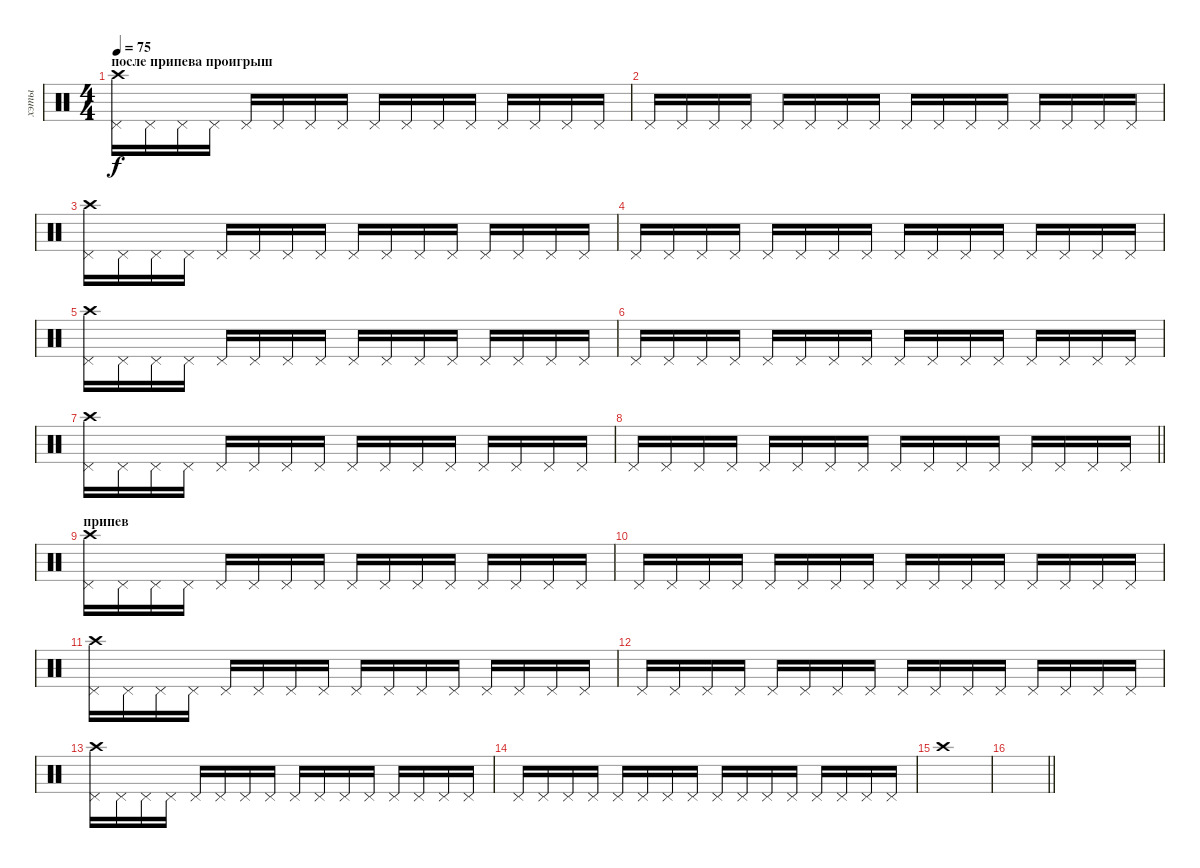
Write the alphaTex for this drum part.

\track ("хэты" "хэты") {instrument percussion}
\staff {score}
\articulation defaults
\ts (4 4)
\section ("" "после припева проигрыш")
\tempo 75
\clef neutral
\ks c
("Crash high (hit)" "Pedal Hi-Hat (hit)").16{dy f} "Pedal Hi-Hat (hit)".16 "Pedal Hi-Hat (hit)".16 "Pedal Hi-Hat (hit)".16 "Pedal Hi-Hat (hit)".16 "Pedal Hi-Hat (hit)".16 "Pedal Hi-Hat (hit)".16 "Pedal Hi-Hat (hit)".16 "Pedal Hi-Hat (hit)".16 "Pedal Hi-Hat (hit)".16 "Pedal Hi-Hat (hit)".16 "Pedal Hi-Hat (hit)".16 "Pedal Hi-Hat (hit)".16 "Pedal Hi-Hat (hit)".16 "Pedal Hi-Hat (hit)".16 "Pedal Hi-Hat (hit)".16 |
"Pedal Hi-Hat (hit)".16 "Pedal Hi-Hat (hit)".16 "Pedal Hi-Hat (hit)".16 "Pedal Hi-Hat (hit)".16 "Pedal Hi-Hat (hit)".16 "Pedal Hi-Hat (hit)".16 "Pedal Hi-Hat (hit)".16 "Pedal Hi-Hat (hit)".16 "Pedal Hi-Hat (hit)".16 "Pedal Hi-Hat (hit)".16 "Pedal Hi-Hat (hit)".16 "Pedal Hi-Hat (hit)".16 "Pedal Hi-Hat (hit)".16 "Pedal Hi-Hat (hit)".16 "Pedal Hi-Hat (hit)".16 "Pedal Hi-Hat (hit)".16 |
("Crash high (hit)" "Pedal Hi-Hat (hit)").16 "Pedal Hi-Hat (hit)".16 "Pedal Hi-Hat (hit)".16 "Pedal Hi-Hat (hit)".16 "Pedal Hi-Hat (hit)".16 "Pedal Hi-Hat (hit)".16 "Pedal Hi-Hat (hit)".16 "Pedal Hi-Hat (hit)".16 "Pedal Hi-Hat (hit)".16 "Pedal Hi-Hat (hit)".16 "Pedal Hi-Hat (hit)".16 "Pedal Hi-Hat (hit)".16 "Pedal Hi-Hat (hit)".16 "Pedal Hi-Hat (hit)".16 "Pedal Hi-Hat (hit)".16 "Pedal Hi-Hat (hit)".16 |
"Pedal Hi-Hat (hit)".16 "Pedal Hi-Hat (hit)".16 "Pedal Hi-Hat (hit)".16 "Pedal Hi-Hat (hit)".16 "Pedal Hi-Hat (hit)".16 "Pedal Hi-Hat (hit)".16 "Pedal Hi-Hat (hit)".16 "Pedal Hi-Hat (hit)".16 "Pedal Hi-Hat (hit)".16 "Pedal Hi-Hat (hit)".16 "Pedal Hi-Hat (hit)".16 "Pedal Hi-Hat (hit)".16 "Pedal Hi-Hat (hit)".16 "Pedal Hi-Hat (hit)".16 "Pedal Hi-Hat (hit)".16 "Pedal Hi-Hat (hit)".16 |
("Crash high (hit)" "Pedal Hi-Hat (hit)").16 "Pedal Hi-Hat (hit)".16 "Pedal Hi-Hat (hit)".16 "Pedal Hi-Hat (hit)".16 "Pedal Hi-Hat (hit)".16 "Pedal Hi-Hat (hit)".16 "Pedal Hi-Hat (hit)".16 "Pedal Hi-Hat (hit)".16 "Pedal Hi-Hat (hit)".16 "Pedal Hi-Hat (hit)".16 "Pedal Hi-Hat (hit)".16 "Pedal Hi-Hat (hit)".16 "Pedal Hi-Hat (hit)".16 "Pedal Hi-Hat (hit)".16 "Pedal Hi-Hat (hit)".16 "Pedal Hi-Hat (hit)".16 |
"Pedal Hi-Hat (hit)".16 "Pedal Hi-Hat (hit)".16 "Pedal Hi-Hat (hit)".16 "Pedal Hi-Hat (hit)".16 "Pedal Hi-Hat (hit)".16 "Pedal Hi-Hat (hit)".16 "Pedal Hi-Hat (hit)".16 "Pedal Hi-Hat (hit)".16 "Pedal Hi-Hat (hit)".16 "Pedal Hi-Hat (hit)".16 "Pedal Hi-Hat (hit)".16 "Pedal Hi-Hat (hit)".16 "Pedal Hi-Hat (hit)".16 "Pedal Hi-Hat (hit)".16 "Pedal Hi-Hat (hit)".16 "Pedal Hi-Hat (hit)".16 |
("Crash high (hit)" "Pedal Hi-Hat (hit)").16 "Pedal Hi-Hat (hit)".16 "Pedal Hi-Hat (hit)".16 "Pedal Hi-Hat (hit)".16 "Pedal Hi-Hat (hit)".16 "Pedal Hi-Hat (hit)".16 "Pedal Hi-Hat (hit)".16 "Pedal Hi-Hat (hit)".16 "Pedal Hi-Hat (hit)".16 "Pedal Hi-Hat (hit)".16 "Pedal Hi-Hat (hit)".16 "Pedal Hi-Hat (hit)".16 "Pedal Hi-Hat (hit)".16 "Pedal Hi-Hat (hit)".16 "Pedal Hi-Hat (hit)".16 "Pedal Hi-Hat (hit)".16 |
\barLineRight lightlight "Pedal Hi-Hat (hit)".16 "Pedal Hi-Hat (hit)".16 "Pedal Hi-Hat (hit)".16 "Pedal Hi-Hat (hit)".16 "Pedal Hi-Hat (hit)".16 "Pedal Hi-Hat (hit)".16 "Pedal Hi-Hat (hit)".16 "Pedal Hi-Hat (hit)".16 "Pedal Hi-Hat (hit)".16 "Pedal Hi-Hat (hit)".16 "Pedal Hi-Hat (hit)".16 "Pedal Hi-Hat (hit)".16 "Pedal Hi-Hat (hit)".16 "Pedal Hi-Hat (hit)".16 "Pedal Hi-Hat (hit)".16 "Pedal Hi-Hat (hit)".16
|
\section ("" "припев")
("Crash high (hit)" "Pedal Hi-Hat (hit)").16 "Pedal Hi-Hat (hit)".16 "Pedal Hi-Hat (hit)".16 "Pedal Hi-Hat (hit)".16 "Pedal Hi-Hat (hit)".16 "Pedal Hi-Hat (hit)".16 "Pedal Hi-Hat (hit)".16 "Pedal Hi-Hat (hit)".16 "Pedal Hi-Hat (hit)".16 "Pedal Hi-Hat (hit)".16 "Pedal Hi-Hat (hit)".16 "Pedal Hi-Hat (hit)".16 "Pedal Hi-Hat (hit)".16 "Pedal Hi-Hat (hit)".16 "Pedal Hi-Hat (hit)".16 "Pedal Hi-Hat (hit)".16 |
"Pedal Hi-Hat (hit)".16 "Pedal Hi-Hat (hit)".16 "Pedal Hi-Hat (hit)".16 "Pedal Hi-Hat (hit)".16 "Pedal Hi-Hat (hit)".16 "Pedal Hi-Hat (hit)".16 "Pedal Hi-Hat (hit)".16 "Pedal Hi-Hat (hit)".16 "Pedal Hi-Hat (hit)".16 "Pedal Hi-Hat (hit)".16 "Pedal Hi-Hat (hit)".16 "Pedal Hi-Hat (hit)".16 "Pedal Hi-Hat (hit)".16 "Pedal Hi-Hat (hit)".16 "Pedal Hi-Hat (hit)".16 "Pedal Hi-Hat (hit)".16 |
("Crash high (hit)" "Pedal Hi-Hat (hit)").16 "Pedal Hi-Hat (hit)".16 "Pedal Hi-Hat (hit)".16 "Pedal Hi-Hat (hit)".16 "Pedal Hi-Hat (hit)".16 "Pedal Hi-Hat (hit)".16 "Pedal Hi-Hat (hit)".16 "Pedal Hi-Hat (hit)".16 "Pedal Hi-Hat (hit)".16 "Pedal Hi-Hat (hit)".16 "Pedal Hi-Hat (hit)".16 "Pedal Hi-Hat (hit)".16 "Pedal Hi-Hat (hit)".16 "Pedal Hi-Hat (hit)".16 "Pedal Hi-Hat (hit)".16 "Pedal Hi-Hat (hit)".16 |
"Pedal Hi-Hat (hit)".16 "Pedal Hi-Hat (hit)".16 "Pedal Hi-Hat (hit)".16 "Pedal Hi-Hat (hit)".16 "Pedal Hi-Hat (hit)".16 "Pedal Hi-Hat (hit)".16 "Pedal Hi-Hat (hit)".16 "Pedal Hi-Hat (hit)".16 "Pedal Hi-Hat (hit)".16 "Pedal Hi-Hat (hit)".16 "Pedal Hi-Hat (hit)".16 "Pedal Hi-Hat (hit)".16 "Pedal Hi-Hat (hit)".16 "Pedal Hi-Hat (hit)".16 "Pedal Hi-Hat (hit)".16 "Pedal Hi-Hat (hit)".16 |
("Crash high (hit)" "Pedal Hi-Hat (hit)").16 "Pedal Hi-Hat (hit)".16 "Pedal Hi-Hat (hit)".16 "Pedal Hi-Hat (hit)".16 "Pedal Hi-Hat (hit)".16 "Pedal Hi-Hat (hit)".16 "Pedal Hi-Hat (hit)".16 "Pedal Hi-Hat (hit)".16 "Pedal Hi-Hat (hit)".16 "Pedal Hi-Hat (hit)".16 "Pedal Hi-Hat (hit)".16 "Pedal Hi-Hat (hit)".16 "Pedal Hi-Hat (hit)".16 "Pedal Hi-Hat (hit)".16 "Pedal Hi-Hat (hit)".16 "Pedal Hi-Hat (hit)".16 |
"Pedal Hi-Hat (hit)".16 "Pedal Hi-Hat (hit)".16 "Pedal Hi-Hat (hit)".16 "Pedal Hi-Hat (hit)".16 "Pedal Hi-Hat (hit)".16 "Pedal Hi-Hat (hit)".16 "Pedal Hi-Hat (hit)".16 "Pedal Hi-Hat (hit)".16 "Pedal Hi-Hat (hit)".16 "Pedal Hi-Hat (hit)".16 "Pedal Hi-Hat (hit)".16 "Pedal Hi-Hat (hit)".16 "Pedal Hi-Hat (hit)".16 "Pedal Hi-Hat (hit)".16 "Pedal Hi-Hat (hit)".16 "Pedal Hi-Hat (hit)".16 |
"Crash high (hit)".1 |
\barLineRight lightlight
